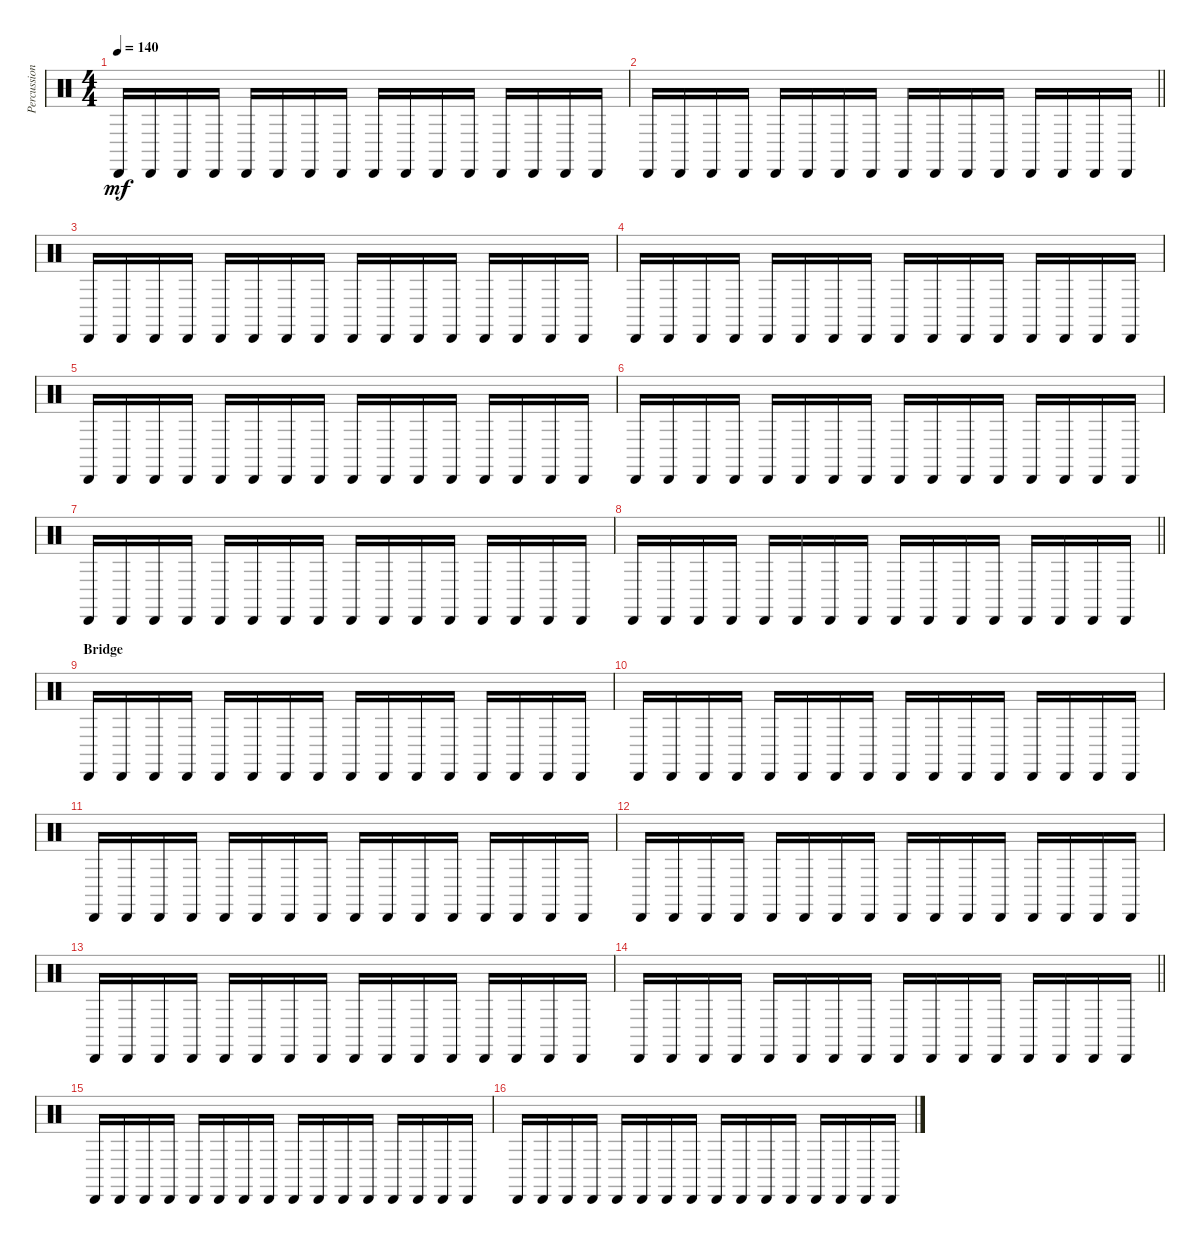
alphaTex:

\track ("Percussioni" "Percussion") {instrument percussion}
\staff {score}
\articulation defaults
\ts (4 4)
\tempo 140
\clef neutral
\ks c "Cabasa (hit)".16{dy mf} "Cabasa (hit)".16 "Cabasa (hit)".16 "Cabasa (hit)".16 "Cabasa (hit)".16 "Cabasa (hit)".16 "Cabasa (hit)".16 "Cabasa (hit)".16 "Cabasa (hit)".16 "Cabasa (hit)".16 "Cabasa (hit)".16 "Cabasa (hit)".16 "Cabasa (hit)".16 "Cabasa (hit)".16 "Cabasa (hit)".16 "Cabasa (hit)".16
|
\barLineRight lightlight "Cabasa (hit)".16 "Cabasa (hit)".16 "Cabasa (hit)".16 "Cabasa (hit)".16 "Cabasa (hit)".16 "Cabasa (hit)".16 "Cabasa (hit)".16 "Cabasa (hit)".16 "Cabasa (hit)".16 "Cabasa (hit)".16 "Cabasa (hit)".16 "Cabasa (hit)".16 "Cabasa (hit)".16 "Cabasa (hit)".16 "Cabasa (hit)".16 "Cabasa (hit)".16
|
"Cabasa (hit)".16 "Cabasa (hit)".16 "Cabasa (hit)".16 "Cabasa (hit)".16 "Cabasa (hit)".16 "Cabasa (hit)".16 "Cabasa (hit)".16 "Cabasa (hit)".16 "Cabasa (hit)".16 "Cabasa (hit)".16 "Cabasa (hit)".16 "Cabasa (hit)".16 "Cabasa (hit)".16 "Cabasa (hit)".16 "Cabasa (hit)".16 "Cabasa (hit)".16 |
"Cabasa (hit)".16 "Cabasa (hit)".16 "Cabasa (hit)".16 "Cabasa (hit)".16 "Cabasa (hit)".16 "Cabasa (hit)".16 "Cabasa (hit)".16 "Cabasa (hit)".16 "Cabasa (hit)".16 "Cabasa (hit)".16 "Cabasa (hit)".16 "Cabasa (hit)".16 "Cabasa (hit)".16 "Cabasa (hit)".16 "Cabasa (hit)".16 "Cabasa (hit)".16 |
"Cabasa (hit)".16 "Cabasa (hit)".16 "Cabasa (hit)".16 "Cabasa (hit)".16 "Cabasa (hit)".16 "Cabasa (hit)".16 "Cabasa (hit)".16 "Cabasa (hit)".16 "Cabasa (hit)".16 "Cabasa (hit)".16 "Cabasa (hit)".16 "Cabasa (hit)".16 "Cabasa (hit)".16 "Cabasa (hit)".16 "Cabasa (hit)".16 "Cabasa (hit)".16 |
"Cabasa (hit)".16 "Cabasa (hit)".16 "Cabasa (hit)".16 "Cabasa (hit)".16 "Cabasa (hit)".16 "Cabasa (hit)".16 "Cabasa (hit)".16 "Cabasa (hit)".16 "Cabasa (hit)".16 "Cabasa (hit)".16 "Cabasa (hit)".16 "Cabasa (hit)".16 "Cabasa (hit)".16 "Cabasa (hit)".16 "Cabasa (hit)".16 "Cabasa (hit)".16 |
"Cabasa (hit)".16 "Cabasa (hit)".16 "Cabasa (hit)".16 "Cabasa (hit)".16 "Cabasa (hit)".16 "Cabasa (hit)".16 "Cabasa (hit)".16 "Cabasa (hit)".16 "Cabasa (hit)".16 "Cabasa (hit)".16 "Cabasa (hit)".16 "Cabasa (hit)".16 "Cabasa (hit)".16 "Cabasa (hit)".16 "Cabasa (hit)".16 "Cabasa (hit)".16 |
\barLineRight lightlight "Cabasa (hit)".16 "Cabasa (hit)".16 "Cabasa (hit)".16 "Cabasa (hit)".16 "Cabasa (hit)".16 "Cabasa (hit)".16 "Cabasa (hit)".16 "Cabasa (hit)".16 "Cabasa (hit)".16 "Cabasa (hit)".16 "Cabasa (hit)".16 "Cabasa (hit)".16 "Cabasa (hit)".16 "Cabasa (hit)".16 "Cabasa (hit)".16 "Cabasa (hit)".16
|
\section ("" "Bridge")
"Cabasa (hit)".16 "Cabasa (hit)".16 "Cabasa (hit)".16 "Cabasa (hit)".16 "Cabasa (hit)".16 "Cabasa (hit)".16 "Cabasa (hit)".16 "Cabasa (hit)".16 "Cabasa (hit)".16 "Cabasa (hit)".16 "Cabasa (hit)".16 "Cabasa (hit)".16 "Cabasa (hit)".16 "Cabasa (hit)".16 "Cabasa (hit)".16 "Cabasa (hit)".16 |
"Cabasa (hit)".16 "Cabasa (hit)".16 "Cabasa (hit)".16 "Cabasa (hit)".16 "Cabasa (hit)".16 "Cabasa (hit)".16 "Cabasa (hit)".16 "Cabasa (hit)".16 "Cabasa (hit)".16 "Cabasa (hit)".16 "Cabasa (hit)".16 "Cabasa (hit)".16 "Cabasa (hit)".16 "Cabasa (hit)".16 "Cabasa (hit)".16 "Cabasa (hit)".16 |
"Cabasa (hit)".16 "Cabasa (hit)".16 "Cabasa (hit)".16 "Cabasa (hit)".16 "Cabasa (hit)".16 "Cabasa (hit)".16 "Cabasa (hit)".16 "Cabasa (hit)".16 "Cabasa (hit)".16 "Cabasa (hit)".16 "Cabasa (hit)".16 "Cabasa (hit)".16 "Cabasa (hit)".16 "Cabasa (hit)".16 "Cabasa (hit)".16 "Cabasa (hit)".16 |
"Cabasa (hit)".16 "Cabasa (hit)".16 "Cabasa (hit)".16 "Cabasa (hit)".16 "Cabasa (hit)".16 "Cabasa (hit)".16 "Cabasa (hit)".16 "Cabasa (hit)".16 "Cabasa (hit)".16 "Cabasa (hit)".16 "Cabasa (hit)".16 "Cabasa (hit)".16 "Cabasa (hit)".16 "Cabasa (hit)".16 "Cabasa (hit)".16 "Cabasa (hit)".16 |
"Cabasa (hit)".16 "Cabasa (hit)".16 "Cabasa (hit)".16 "Cabasa (hit)".16 "Cabasa (hit)".16 "Cabasa (hit)".16 "Cabasa (hit)".16 "Cabasa (hit)".16 "Cabasa (hit)".16 "Cabasa (hit)".16 "Cabasa (hit)".16 "Cabasa (hit)".16 "Cabasa (hit)".16 "Cabasa (hit)".16 "Cabasa (hit)".16 "Cabasa (hit)".16 |
\barLineRight lightlight "Cabasa (hit)".16 "Cabasa (hit)".16 "Cabasa (hit)".16 "Cabasa (hit)".16 "Cabasa (hit)".16 "Cabasa (hit)".16 "Cabasa (hit)".16 "Cabasa (hit)".16 "Cabasa (hit)".16 "Cabasa (hit)".16 "Cabasa (hit)".16 "Cabasa (hit)".16 "Cabasa (hit)".16 "Cabasa (hit)".16 "Cabasa (hit)".16 "Cabasa (hit)".16
|
"Cabasa (hit)".16 "Cabasa (hit)".16 "Cabasa (hit)".16 "Cabasa (hit)".16 "Cabasa (hit)".16 "Cabasa (hit)".16 "Cabasa (hit)".16 "Cabasa (hit)".16 "Cabasa (hit)".16 "Cabasa (hit)".16 "Cabasa (hit)".16 "Cabasa (hit)".16 "Cabasa (hit)".16 "Cabasa (hit)".16 "Cabasa (hit)".16 "Cabasa (hit)".16 |
"Cabasa (hit)".16 "Cabasa (hit)".16 "Cabasa (hit)".16 "Cabasa (hit)".16 "Cabasa (hit)".16 "Cabasa (hit)".16 "Cabasa (hit)".16 "Cabasa (hit)".16 "Cabasa (hit)".16 "Cabasa (hit)".16 "Cabasa (hit)".16 "Cabasa (hit)".16 "Cabasa (hit)".16 "Cabasa (hit)".16 "Cabasa (hit)".16 "Cabasa (hit)".16
